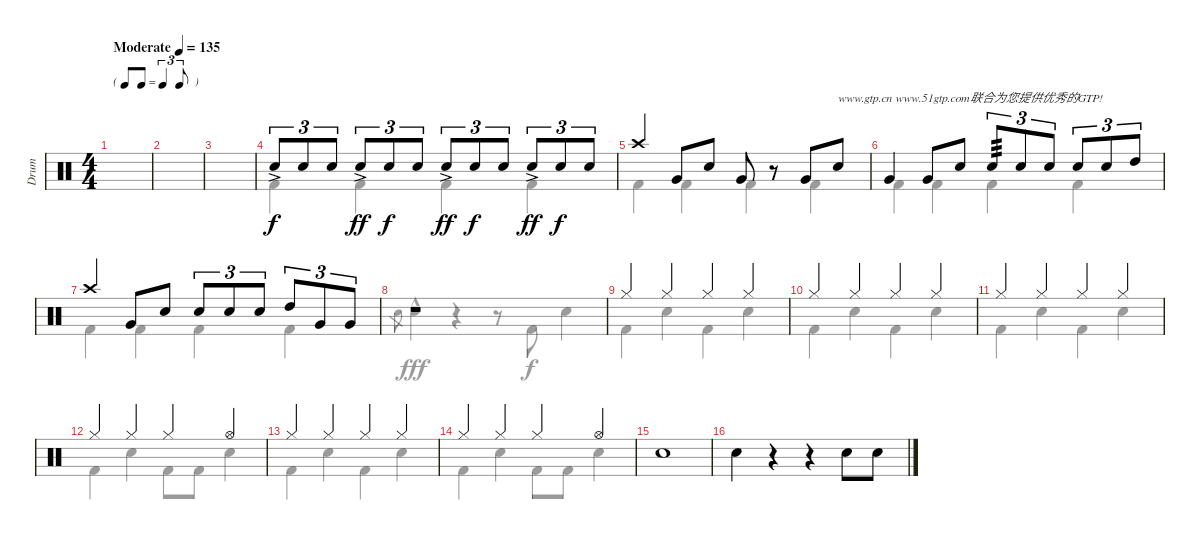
\track ("Drum" "Drum") {instrument percussion}
\staff {score}
\articulation defaults
\voice
\ts (4 4)
\tf triplet8th
\tempo (135 "Moderate")
\clef neutral
\ks c
|
|
|
"Snare (hit) 2"{ac}.8{tu (3 2)} "Snare (hit) 2".8{tu (3 2) dy f} "Snare (hit) 2".8{tu (3 2)} "Snare (hit) 2"{ac}.8{tu (3 2) dy ff} "Snare (hit) 2".8{tu (3 2) dy f} "Snare (hit) 2".8{tu (3 2)} "Snare (hit) 2"{ac}.8{tu (3 2) dy ff} "Snare (hit) 2".8{tu (3 2) dy f} "Snare (hit) 2".8{tu (3 2)} "Snare (hit) 2"{ac}.8{tu (3 2) dy ff} "Snare (hit) 2".8{tu (3 2) dy f} "Snare (hit) 2".8{tu (3 2)} |
"Crash high (hit)".4 "Very Low Tom (hit)".8 "Snare (hit) 2".8 "Very Low Tom (hit)".8 r.8 "Very Low Tom (hit)".8 "Snare (hit) 2".8{txt "www.gtp.cn www.51gtp.com联合为您提供优秀的GTP!"} |
"Very Low Tom (hit)".4 "Very Low Tom (hit)".8 "Snare (hit) 2".8 "Snare (hit) 2".8{tu (3 2) tp 3} "Snare (hit) 2".8{tu (3 2)} "Snare (hit) 2".8{tu (3 2)} "Snare (hit) 2".8{tu (3 2)} "Snare (hit) 2".8{tu (3 2)} "High Tom (hit)".8{tu (3 2)} |
"Crash high (hit)".4 "Very Low Tom (hit)".8 "Snare (hit) 2".8 "Snare (hit) 2".8{tu (3 2)} "Snare (hit) 2".8{tu (3 2)} "Snare (hit) 2".8{tu (3 2)} "High Tom (hit)".8{tu (3 2)} "Very Low Tom (hit)".8{tu (3 2)} "Very Low Tom (hit)".8{tu (3 2)} |
r.1 |
"Hi-Hat (closed)".4 "Hi-Hat (closed)".4 "Hi-Hat (closed)".4 "Hi-Hat (closed)".4 |
"Hi-Hat (closed)".4 "Hi-Hat (closed)".4 "Hi-Hat (closed)".4 "Hi-Hat (closed)".4 |
"Hi-Hat (closed)".4 "Hi-Hat (closed)".4 "Hi-Hat (closed)".4 "Hi-Hat (closed)".4 |
"Hi-Hat (closed)".4 "Hi-Hat (closed)".4 "Hi-Hat (closed)".4 "Hi-Hat (open)".4 |
"Hi-Hat (closed)".4 "Hi-Hat (closed)".4 "Hi-Hat (closed)".4 "Hi-Hat (closed)".4 |
"Hi-Hat (closed)".4 "Hi-Hat (closed)".4 "Hi-Hat (closed)".4 "Hi-Hat (open)".4 |
"Snare (hit) 2".1 |
"Snare (hit) 2".4 r.4 r.4 "Snare (hit) 2".8 "Snare (hit) 2".8
\voice
\clef neutral
\ottava regular
\simile none
\ks c
|
|
|
"Kick (hit) 2".4 "Kick (hit) 2".4 "Kick (hit) 2".4 "Kick (hit) 2".4 |
"Kick (hit) 2".4 "Kick (hit) 2".4 "Kick (hit) 2".4 "Kick (hit) 2".4 |
"Kick (hit) 2".4 "Kick (hit) 2".4 "Kick (hit) 2".4 "Kick (hit) 2".4 |
"Kick (hit) 2".4 "Kick (hit) 2".4 "Kick (hit) 2".4 "Kick (hit) 2".4 |
"Snare (hit) 2".8{gr} "Snare (hit) 2"{hac}.4{dy fff} r.4 r.8 "Kick (hit) 2".8{dy f} "Snare (hit) 2".4 |
"Kick (hit) 2".4 "Snare (hit) 2".4 "Kick (hit) 2".4 "Snare (hit) 2".4 |
"Kick (hit) 2".4 "Snare (hit) 2".4 "Kick (hit) 2".4 "Snare (hit) 2".4 |
"Kick (hit) 2".4 "Snare (hit) 2".4 "Kick (hit) 2".4 "Snare (hit) 2".4 |
"Kick (hit) 2".4 "Snare (hit) 2".4 "Kick (hit) 2".8 "Kick (hit) 2".8 "Snare (hit) 2".4 |
"Kick (hit) 2".4 "Snare (hit) 2".4 "Kick (hit) 2".4 "Snare (hit) 2".4 |
"Kick (hit) 2".4 "Snare (hit) 2".4 "Kick (hit) 2".8 "Kick (hit) 2".8 "Snare (hit) 2".4 |
|
